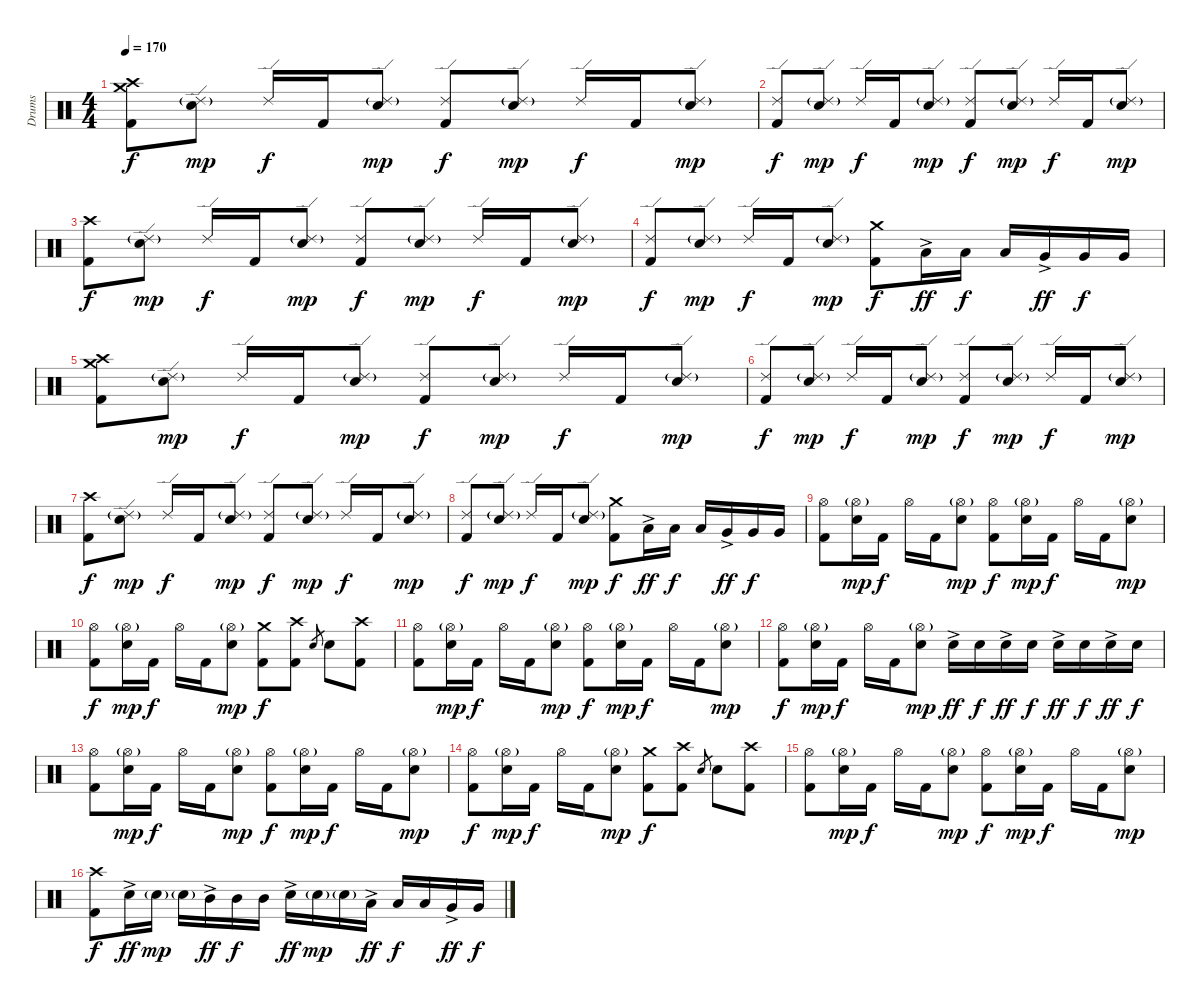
\track ("Drums" "Drums") {instrument percussion}
\staff {score}
\articulation defaults
\ts (4 4)
\tempo 170
\clef neutral
\ks c
("Crash medium (hit)" "Crash high (hit)" "Kick (hit) 2").8{dy f} ("Ride (edge) 2"{g} "Electric Snare (hit)").8{dy mp} "Ride (edge) 2".16{dy f} "Kick (hit) 2".16 ("Ride (edge) 2"{g} "Electric Snare (hit)").8{dy mp} ("Ride (edge) 2" "Kick (hit) 2").8{dy f} ("Ride (edge) 2"{g} "Electric Snare (hit)").8{dy mp} "Ride (edge) 2".16{dy f} "Kick (hit) 2".16 ("Ride (edge) 2"{g} "Electric Snare (hit)").8{dy mp} |
("Ride (edge) 2" "Kick (hit) 2").8{dy f} ("Ride (edge) 2"{g} "Electric Snare (hit)").8{dy mp} "Ride (edge) 2".16{dy f} "Kick (hit) 2".16 ("Ride (edge) 2"{g} "Electric Snare (hit)").8{dy mp} ("Ride (edge) 2" "Kick (hit) 2").8{dy f} ("Ride (edge) 2"{g} "Electric Snare (hit)").8{dy mp} "Ride (edge) 2".16{dy f} "Kick (hit) 2".16 ("Ride (edge) 2"{g} "Electric Snare (hit)").8{dy mp} |
("Crash high (hit)" "Kick (hit) 2").8{dy f} ("Ride (edge) 2"{g} "Electric Snare (hit)").8{dy mp} "Ride (edge) 2".16{dy f} "Kick (hit) 2".16 ("Ride (edge) 2"{g} "Electric Snare (hit)").8{dy mp} ("Ride (edge) 2" "Kick (hit) 2").8{dy f} ("Ride (edge) 2"{g} "Electric Snare (hit)").8{dy mp} "Ride (edge) 2".16{dy f} "Kick (hit) 2".16 ("Ride (edge) 2"{g} "Electric Snare (hit)").8{dy mp} |
("Ride (edge) 2" "Kick (hit) 2").8{dy f} ("Ride (edge) 2"{g} "Electric Snare (hit)").8{dy mp} "Ride (edge) 2".16{dy f} "Kick (hit) 2".16 ("Ride (edge) 2"{g} "Electric Snare (hit)").8{dy mp} ("Crash medium (hit)" "Kick (hit) 2").8{dy f} "Low Tom (hit)"{ac}.16{dy ff} "Low Tom (hit)".16{dy f} "Low Tom (hit)".16 "Very Low Tom (hit)"{ac}.16{dy ff} "Very Low Tom (hit)".16{dy f} "Very Low Tom (hit)".16 |
("Crash medium (hit)" "Crash high (hit)" "Kick (hit) 2").8 ("Ride (edge) 2"{g} "Electric Snare (hit)").8{dy mp} "Ride (edge) 2".16{dy f} "Kick (hit) 2".16 ("Ride (edge) 2"{g} "Electric Snare (hit)").8{dy mp} ("Ride (edge) 2" "Kick (hit) 2").8{dy f} ("Ride (edge) 2"{g} "Electric Snare (hit)").8{dy mp} "Ride (edge) 2".16{dy f} "Kick (hit) 2".16 ("Ride (edge) 2"{g} "Electric Snare (hit)").8{dy mp} |
("Ride (edge) 2" "Kick (hit) 2").8{dy f} ("Ride (edge) 2"{g} "Electric Snare (hit)").8{dy mp} "Ride (edge) 2".16{dy f} "Kick (hit) 2".16 ("Ride (edge) 2"{g} "Electric Snare (hit)").8{dy mp} ("Ride (edge) 2" "Kick (hit) 2").8{dy f} ("Ride (edge) 2"{g} "Electric Snare (hit)").8{dy mp} "Ride (edge) 2".16{dy f} "Kick (hit) 2".16 ("Ride (edge) 2"{g} "Electric Snare (hit)").8{dy mp} |
("Crash high (hit)" "Kick (hit) 2").8{dy f} ("Ride (edge) 2"{g} "Electric Snare (hit)").8{dy mp} "Ride (edge) 2".16{dy f} "Kick (hit) 2".16 ("Ride (edge) 2"{g} "Electric Snare (hit)").8{dy mp} ("Ride (edge) 2" "Kick (hit) 2").8{dy f} ("Ride (edge) 2"{g} "Electric Snare (hit)").8{dy mp} "Ride (edge) 2".16{dy f} "Kick (hit) 2".16 ("Ride (edge) 2"{g} "Electric Snare (hit)").8{dy mp} |
("Ride (edge) 2" "Kick (hit) 2").8{dy f} ("Ride (edge) 2"{g} "Electric Snare (hit)").8{dy mp} "Ride (edge) 2".16{dy f} "Kick (hit) 2".16 ("Ride (edge) 2"{g} "Electric Snare (hit)").8{dy mp} ("Crash medium (hit)" "Kick (hit) 2").8{dy f} "Low Tom (hit)"{ac}.16{dy ff} "Low Tom (hit)".16{dy f} "Low Tom (hit)".16 "Very Low Tom (hit)"{ac}.16{dy ff} "Very Low Tom (hit)".16{dy f} "Very Low Tom (hit)".16 |
("Hi-Hat (open)" "Kick (hit) 2").8 ("Hi-Hat (open)"{g} "Electric Snare (hit)").16{dy mp} "Kick (hit) 2".16{dy f} "Hi-Hat (open)".16 "Kick (hit) 2".16 ("Hi-Hat (open)"{g} "Electric Snare (hit)").8{dy mp} ("Hi-Hat (open)" "Kick (hit) 2").8{dy f} ("Hi-Hat (open)"{g} "Electric Snare (hit)").16{dy mp} "Kick (hit) 2".16{dy f} "Hi-Hat (open)".16 "Kick (hit) 2".16 ("Hi-Hat (open)"{g} "Electric Snare (hit)").8{dy mp} |
("Hi-Hat (open)" "Kick (hit) 2").8{dy f} ("Hi-Hat (open)"{g} "Electric Snare (hit)").16{dy mp} "Kick (hit) 2".16{dy f} "Hi-Hat (open)".16 "Kick (hit) 2".16 ("Hi-Hat (open)"{g} "Electric Snare (hit)").8{dy mp} ("Crash medium (hit)" "Kick (hit) 2").8{dy f} ("Crash high (hit)" "Kick (hit) 2").8 "Electric Snare (hit)".8{gr} "Electric Snare (hit)".8 ("Crash high (hit)" "Kick (hit) 2").8 |
("Hi-Hat (open)" "Kick (hit) 2").8 ("Hi-Hat (open)"{g} "Electric Snare (hit)").16{dy mp} "Kick (hit) 2".16{dy f} "Hi-Hat (open)".16 "Kick (hit) 2".16 ("Hi-Hat (open)"{g} "Electric Snare (hit)").8{dy mp} ("Hi-Hat (open)" "Kick (hit) 2").8{dy f} ("Hi-Hat (open)"{g} "Electric Snare (hit)").16{dy mp} "Kick (hit) 2".16{dy f} "Hi-Hat (open)".16 "Kick (hit) 2".16 ("Hi-Hat (open)"{g} "Electric Snare (hit)").8{dy mp} |
("Hi-Hat (open)" "Kick (hit) 2").8{dy f} ("Hi-Hat (open)"{g} "Electric Snare (hit)").16{dy mp} "Kick (hit) 2".16{dy f} "Hi-Hat (open)".16 "Kick (hit) 2".16 ("Hi-Hat (open)"{g} "Electric Snare (hit)").8{dy mp} "Electric Snare (hit)"{ac}.16{dy ff} "Electric Snare (hit)".16{dy f} "Electric Snare (hit)"{ac}.16{dy ff} "Electric Snare (hit)".16{dy f} "Electric Snare (hit)"{ac}.16{dy ff} "Electric Snare (hit)".16{dy f} "Electric Snare (hit)"{ac}.16{dy ff} "Electric Snare (hit)".16{dy f} |
("Hi-Hat (open)" "Kick (hit) 2").8 ("Hi-Hat (open)"{g} "Electric Snare (hit)").16{dy mp} "Kick (hit) 2".16{dy f} "Hi-Hat (open)".16 "Kick (hit) 2".16 ("Hi-Hat (open)"{g} "Electric Snare (hit)").8{dy mp} ("Hi-Hat (open)" "Kick (hit) 2").8{dy f} ("Hi-Hat (open)"{g} "Electric Snare (hit)").16{dy mp} "Kick (hit) 2".16{dy f} "Hi-Hat (open)".16 "Kick (hit) 2".16 ("Hi-Hat (open)"{g} "Electric Snare (hit)").8{dy mp} |
("Hi-Hat (open)" "Kick (hit) 2").8{dy f} ("Hi-Hat (open)"{g} "Electric Snare (hit)").16{dy mp} "Kick (hit) 2".16{dy f} "Hi-Hat (open)".16 "Kick (hit) 2".16 ("Hi-Hat (open)"{g} "Electric Snare (hit)").8{dy mp} ("Crash medium (hit)" "Kick (hit) 2").8{dy f} ("Crash high (hit)" "Kick (hit) 2").8 "Electric Snare (hit)".8{gr} "Electric Snare (hit)".8 ("Crash high (hit)" "Kick (hit) 2").8 |
("Hi-Hat (open)" "Kick (hit) 2").8 ("Hi-Hat (open)"{g} "Electric Snare (hit)").16{dy mp} "Kick (hit) 2".16{dy f} "Hi-Hat (open)".16 "Kick (hit) 2".16 ("Hi-Hat (open)"{g} "Electric Snare (hit)").8{dy mp} ("Hi-Hat (open)" "Kick (hit) 2").8{dy f} ("Hi-Hat (open)"{g} "Electric Snare (hit)").16{dy mp} "Kick (hit) 2".16{dy f} "Hi-Hat (open)".16 "Kick (hit) 2".16 ("Hi-Hat (open)"{g} "Electric Snare (hit)").8{dy mp} |
("Crash high (hit)" "Kick (hit) 2").8{dy f} "Electric Snare (hit)"{ac}.16{dy ff} "Electric Snare (hit)"{g}.16{dy mp} "Electric Snare (hit)"{g}.16 "Mid Tom (hit)"{ac}.16{dy ff} "Mid Tom (hit)".16{dy f} "Mid Tom (hit)".16 "Electric Snare (hit)"{ac}.16{dy ff} "Electric Snare (hit)"{g}.16{dy mp} "Electric Snare (hit)"{g}.16 "Low Tom (hit)"{ac}.16{dy ff} "Low Tom (hit)".16{dy f} "Low Tom (hit)".16 "Very Low Tom (hit)"{ac}.16{dy ff} "Very Low Tom (hit)".16{dy f}
